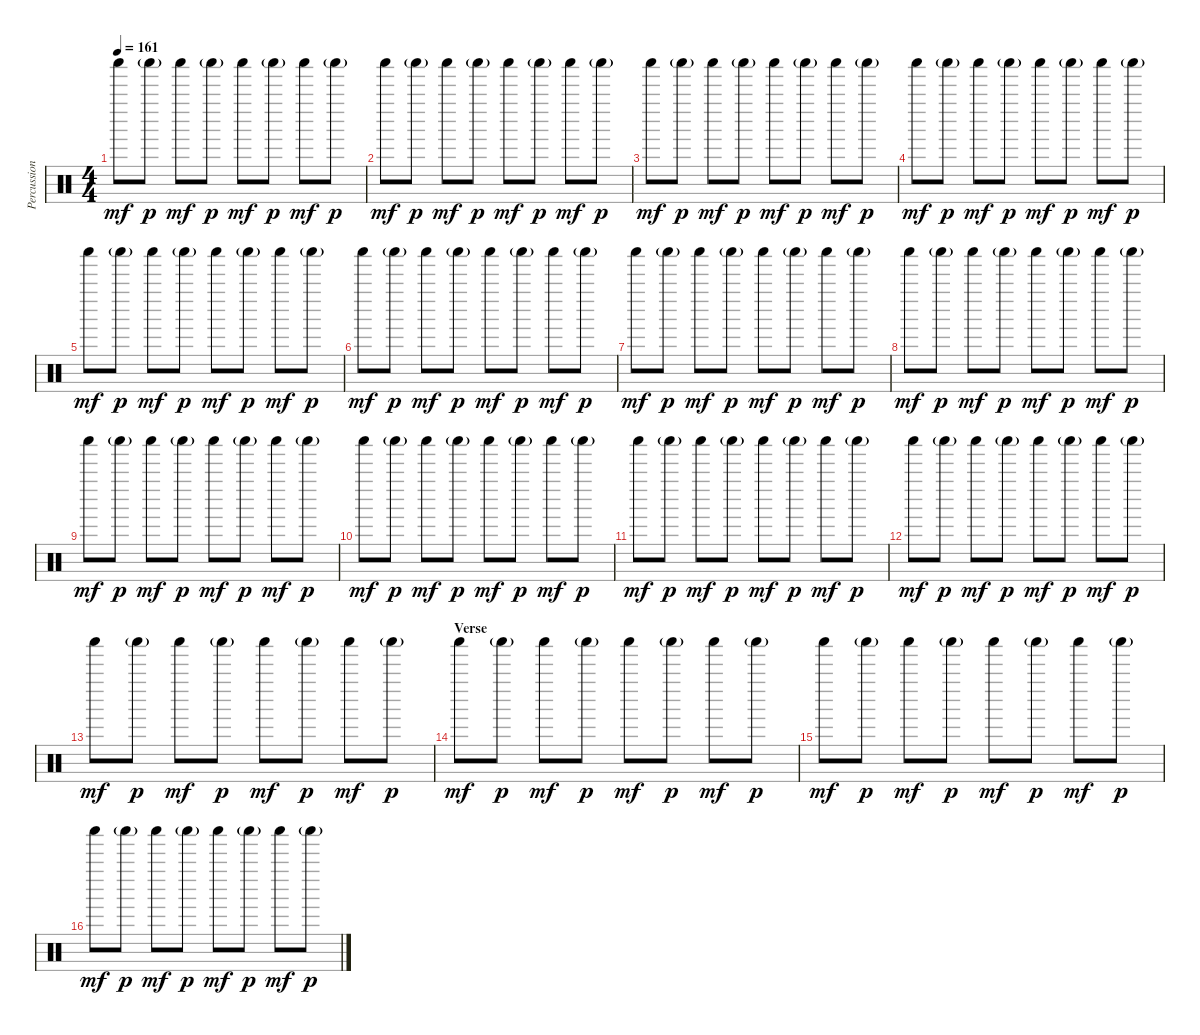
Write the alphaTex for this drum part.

\track ("Percussion" "Percussion") {instrument percussion}
\staff {score}
\articulation defaults
\ts (4 4)
\tempo 161
\clef neutral
\ks c "Shaker (hit)".8{dy mf} "Shaker (hit)"{g}.8{dy p} "Shaker (hit)".8{dy mf} "Shaker (hit)"{g}.8{dy p} "Shaker (hit)".8{dy mf} "Shaker (hit)"{g}.8{dy p} "Shaker (hit)".8{dy mf} "Shaker (hit)"{g}.8{dy p}
|
"Shaker (hit)".8{dy mf} "Shaker (hit)"{g}.8{dy p} "Shaker (hit)".8{dy mf} "Shaker (hit)"{g}.8{dy p} "Shaker (hit)".8{dy mf} "Shaker (hit)"{g}.8{dy p} "Shaker (hit)".8{dy mf} "Shaker (hit)"{g}.8{dy p} |
"Shaker (hit)".8{dy mf} "Shaker (hit)"{g}.8{dy p} "Shaker (hit)".8{dy mf} "Shaker (hit)"{g}.8{dy p} "Shaker (hit)".8{dy mf} "Shaker (hit)"{g}.8{dy p} "Shaker (hit)".8{dy mf} "Shaker (hit)"{g}.8{dy p} |
"Shaker (hit)".8{dy mf} "Shaker (hit)"{g}.8{dy p} "Shaker (hit)".8{dy mf} "Shaker (hit)"{g}.8{dy p} "Shaker (hit)".8{dy mf} "Shaker (hit)"{g}.8{dy p} "Shaker (hit)".8{dy mf} "Shaker (hit)"{g}.8{dy p} |
"Shaker (hit)".8{dy mf} "Shaker (hit)"{g}.8{dy p} "Shaker (hit)".8{dy mf} "Shaker (hit)"{g}.8{dy p} "Shaker (hit)".8{dy mf} "Shaker (hit)"{g}.8{dy p} "Shaker (hit)".8{dy mf} "Shaker (hit)"{g}.8{dy p} |
"Shaker (hit)".8{dy mf} "Shaker (hit)"{g}.8{dy p} "Shaker (hit)".8{dy mf} "Shaker (hit)"{g}.8{dy p} "Shaker (hit)".8{dy mf} "Shaker (hit)"{g}.8{dy p} "Shaker (hit)".8{dy mf} "Shaker (hit)"{g}.8{dy p} |
"Shaker (hit)".8{dy mf} "Shaker (hit)"{g}.8{dy p} "Shaker (hit)".8{dy mf} "Shaker (hit)"{g}.8{dy p} "Shaker (hit)".8{dy mf} "Shaker (hit)"{g}.8{dy p} "Shaker (hit)".8{dy mf} "Shaker (hit)"{g}.8{dy p} |
"Shaker (hit)".8{dy mf} "Shaker (hit)"{g}.8{dy p} "Shaker (hit)".8{dy mf} "Shaker (hit)"{g}.8{dy p} "Shaker (hit)".8{dy mf} "Shaker (hit)"{g}.8{dy p} "Shaker (hit)".8{dy mf} "Shaker (hit)"{g}.8{dy p} |
"Shaker (hit)".8{dy mf} "Shaker (hit)"{g}.8{dy p} "Shaker (hit)".8{dy mf} "Shaker (hit)"{g}.8{dy p} "Shaker (hit)".8{dy mf} "Shaker (hit)"{g}.8{dy p} "Shaker (hit)".8{dy mf} "Shaker (hit)"{g}.8{dy p} |
"Shaker (hit)".8{dy mf} "Shaker (hit)"{g}.8{dy p} "Shaker (hit)".8{dy mf} "Shaker (hit)"{g}.8{dy p} "Shaker (hit)".8{dy mf} "Shaker (hit)"{g}.8{dy p} "Shaker (hit)".8{dy mf} "Shaker (hit)"{g}.8{dy p} |
"Shaker (hit)".8{dy mf} "Shaker (hit)"{g}.8{dy p} "Shaker (hit)".8{dy mf} "Shaker (hit)"{g}.8{dy p} "Shaker (hit)".8{dy mf} "Shaker (hit)"{g}.8{dy p} "Shaker (hit)".8{dy mf} "Shaker (hit)"{g}.8{dy p} |
"Shaker (hit)".8{dy mf} "Shaker (hit)"{g}.8{dy p} "Shaker (hit)".8{dy mf} "Shaker (hit)"{g}.8{dy p} "Shaker (hit)".8{dy mf} "Shaker (hit)"{g}.8{dy p} "Shaker (hit)".8{dy mf} "Shaker (hit)"{g}.8{dy p} |
"Shaker (hit)".8{dy mf} "Shaker (hit)"{g}.8{dy p} "Shaker (hit)".8{dy mf} "Shaker (hit)"{g}.8{dy p} "Shaker (hit)".8{dy mf} "Shaker (hit)"{g}.8{dy p} "Shaker (hit)".8{dy mf} "Shaker (hit)"{g}.8{dy p} |
\section ("" "Verse")
"Shaker (hit)".8{dy mf} "Shaker (hit)"{g}.8{dy p} "Shaker (hit)".8{dy mf} "Shaker (hit)"{g}.8{dy p} "Shaker (hit)".8{dy mf} "Shaker (hit)"{g}.8{dy p} "Shaker (hit)".8{dy mf} "Shaker (hit)"{g}.8{dy p} |
"Shaker (hit)".8{dy mf} "Shaker (hit)"{g}.8{dy p} "Shaker (hit)".8{dy mf} "Shaker (hit)"{g}.8{dy p} "Shaker (hit)".8{dy mf} "Shaker (hit)"{g}.8{dy p} "Shaker (hit)".8{dy mf} "Shaker (hit)"{g}.8{dy p} |
"Shaker (hit)".8{dy mf} "Shaker (hit)"{g}.8{dy p} "Shaker (hit)".8{dy mf} "Shaker (hit)"{g}.8{dy p} "Shaker (hit)".8{dy mf} "Shaker (hit)"{g}.8{dy p} "Shaker (hit)".8{dy mf} "Shaker (hit)"{g}.8{dy p}
